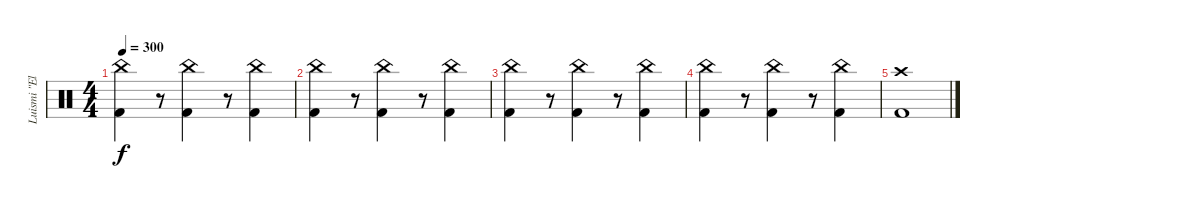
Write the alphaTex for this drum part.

\track ("Luismi \"El Papi\"" "Luismi \"El") {instrument percussion}
\staff {score}
\articulation defaults
\ts (4 4)
\tempo 300
\clef neutral
\ks c
("China (hit)" "Kick (hit) 2").4{dy f} r.8 ("China (hit)" "Kick (hit) 2").4 r.8 ("China (hit)" "Kick (hit) 2").4 |
("China (hit)" "Kick (hit) 2").4 r.8 ("China (hit)" "Kick (hit) 2").4 r.8 ("China (hit)" "Kick (hit) 2").4 |
("China (hit)" "Kick (hit) 2").4 r.8 ("China (hit)" "Kick (hit) 2").4 r.8 ("China (hit)" "Kick (hit) 2").4 |
("China (hit)" "Kick (hit) 2").4 r.8 ("China (hit)" "Kick (hit) 2").4 r.8 ("China (hit)" "Kick (hit) 2").4 |
("Crash high (hit)" "Kick (hit) 2").1
